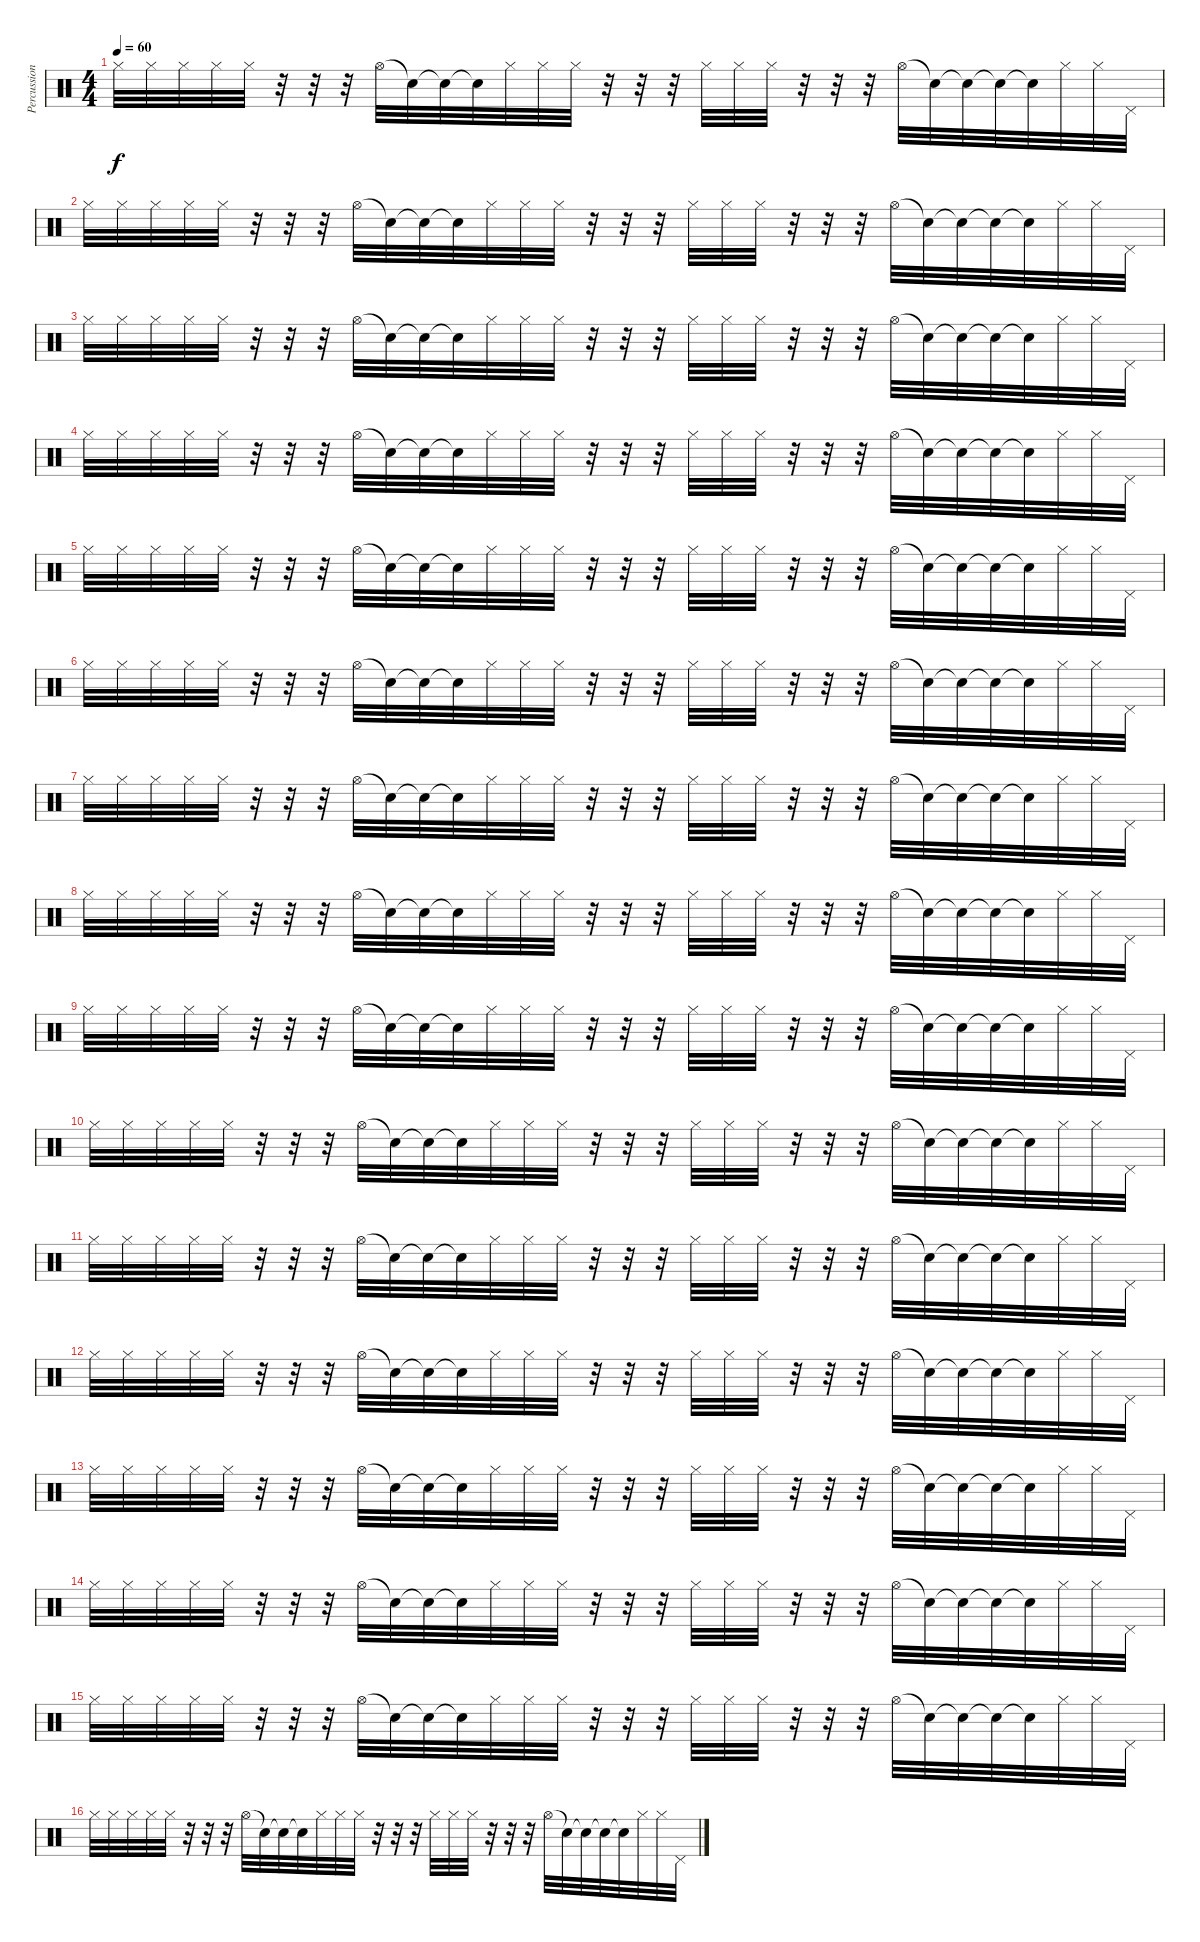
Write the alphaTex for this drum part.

\track ("Percussions (Hit Hat)" "Percussion") {instrument percussion}
\staff {score}
\articulation defaults
\ts (4 4)
\tempo 60
\clef neutral
\ks c "Hi-Hat (closed)".32{dy f} "Hi-Hat (closed)".32 "Hi-Hat (closed)".32 "Hi-Hat (closed)".32 "Hi-Hat (closed)".32
r.32 r.32 r.32 "Hi-Hat (open)".32 "Snare (hit)"{t}.32 "Snare (hit)"{t}.32 "Snare (hit)"{t}.32 "Hi-Hat (closed)".32 "Hi-Hat (closed)".32 "Hi-Hat (closed)".32 r.32 r.32 r.32 "Hi-Hat (closed)".32 "Hi-Hat (closed)".32 "Hi-Hat (closed)".32 r.32 r.32 r.32 "Hi-Hat (open)".32 "Snare (hit)"{t}.32 "Snare (hit)"{t}.32 "Snare (hit)"{t}.32 "Snare (hit)"{t}.32 "Hi-Hat (closed)".32 "Hi-Hat (closed)".32 "Pedal Hi-Hat (hit)".32 |
"Hi-Hat (closed)".32 "Hi-Hat (closed)".32 "Hi-Hat (closed)".32 "Hi-Hat (closed)".32 "Hi-Hat (closed)".32 r.32 r.32 r.32 "Hi-Hat (open)".32 "Snare (hit)"{t}.32 "Snare (hit)"{t}.32 "Snare (hit)"{t}.32 "Hi-Hat (closed)".32 "Hi-Hat (closed)".32 "Hi-Hat (closed)".32 r.32 r.32 r.32 "Hi-Hat (closed)".32 "Hi-Hat (closed)".32 "Hi-Hat (closed)".32 r.32 r.32 r.32 "Hi-Hat (open)".32 "Snare (hit)"{t}.32 "Snare (hit)"{t}.32 "Snare (hit)"{t}.32 "Snare (hit)"{t}.32 "Hi-Hat (closed)".32 "Hi-Hat (closed)".32 "Pedal Hi-Hat (hit)".32 |
"Hi-Hat (closed)".32 "Hi-Hat (closed)".32 "Hi-Hat (closed)".32 "Hi-Hat (closed)".32 "Hi-Hat (closed)".32 r.32 r.32 r.32 "Hi-Hat (open)".32 "Snare (hit)"{t}.32 "Snare (hit)"{t}.32 "Snare (hit)"{t}.32 "Hi-Hat (closed)".32 "Hi-Hat (closed)".32 "Hi-Hat (closed)".32 r.32 r.32 r.32 "Hi-Hat (closed)".32 "Hi-Hat (closed)".32 "Hi-Hat (closed)".32 r.32 r.32 r.32 "Hi-Hat (open)".32 "Snare (hit)"{t}.32 "Snare (hit)"{t}.32 "Snare (hit)"{t}.32 "Snare (hit)"{t}.32 "Hi-Hat (closed)".32 "Hi-Hat (closed)".32 "Pedal Hi-Hat (hit)".32 |
"Hi-Hat (closed)".32 "Hi-Hat (closed)".32 "Hi-Hat (closed)".32 "Hi-Hat (closed)".32 "Hi-Hat (closed)".32 r.32 r.32 r.32 "Hi-Hat (open)".32 "Snare (hit)"{t}.32 "Snare (hit)"{t}.32 "Snare (hit)"{t}.32 "Hi-Hat (closed)".32 "Hi-Hat (closed)".32 "Hi-Hat (closed)".32 r.32 r.32 r.32 "Hi-Hat (closed)".32 "Hi-Hat (closed)".32 "Hi-Hat (closed)".32 r.32 r.32 r.32 "Hi-Hat (open)".32 "Snare (hit)"{t}.32 "Snare (hit)"{t}.32 "Snare (hit)"{t}.32 "Snare (hit)"{t}.32 "Hi-Hat (closed)".32 "Hi-Hat (closed)".32 "Pedal Hi-Hat (hit)".32 |
"Hi-Hat (closed)".32 "Hi-Hat (closed)".32 "Hi-Hat (closed)".32 "Hi-Hat (closed)".32 "Hi-Hat (closed)".32 r.32 r.32 r.32 "Hi-Hat (open)".32 "Snare (hit)"{t}.32 "Snare (hit)"{t}.32 "Snare (hit)"{t}.32 "Hi-Hat (closed)".32 "Hi-Hat (closed)".32 "Hi-Hat (closed)".32 r.32 r.32 r.32 "Hi-Hat (closed)".32 "Hi-Hat (closed)".32 "Hi-Hat (closed)".32 r.32 r.32 r.32 "Hi-Hat (open)".32 "Snare (hit)"{t}.32 "Snare (hit)"{t}.32 "Snare (hit)"{t}.32 "Snare (hit)"{t}.32 "Hi-Hat (closed)".32 "Hi-Hat (closed)".32 "Pedal Hi-Hat (hit)".32 |
"Hi-Hat (closed)".32 "Hi-Hat (closed)".32 "Hi-Hat (closed)".32 "Hi-Hat (closed)".32 "Hi-Hat (closed)".32 r.32 r.32 r.32 "Hi-Hat (open)".32 "Snare (hit)"{t}.32 "Snare (hit)"{t}.32 "Snare (hit)"{t}.32 "Hi-Hat (closed)".32 "Hi-Hat (closed)".32 "Hi-Hat (closed)".32 r.32 r.32 r.32 "Hi-Hat (closed)".32 "Hi-Hat (closed)".32 "Hi-Hat (closed)".32 r.32 r.32 r.32 "Hi-Hat (open)".32 "Snare (hit)"{t}.32 "Snare (hit)"{t}.32 "Snare (hit)"{t}.32 "Snare (hit)"{t}.32 "Hi-Hat (closed)".32 "Hi-Hat (closed)".32 "Pedal Hi-Hat (hit)".32 |
"Hi-Hat (closed)".32 "Hi-Hat (closed)".32 "Hi-Hat (closed)".32 "Hi-Hat (closed)".32 "Hi-Hat (closed)".32 r.32 r.32 r.32 "Hi-Hat (open)".32 "Snare (hit)"{t}.32 "Snare (hit)"{t}.32 "Snare (hit)"{t}.32 "Hi-Hat (closed)".32 "Hi-Hat (closed)".32 "Hi-Hat (closed)".32 r.32 r.32 r.32 "Hi-Hat (closed)".32 "Hi-Hat (closed)".32 "Hi-Hat (closed)".32 r.32 r.32 r.32 "Hi-Hat (open)".32 "Snare (hit)"{t}.32 "Snare (hit)"{t}.32 "Snare (hit)"{t}.32 "Snare (hit)"{t}.32 "Hi-Hat (closed)".32 "Hi-Hat (closed)".32 "Pedal Hi-Hat (hit)".32 |
"Hi-Hat (closed)".32 "Hi-Hat (closed)".32 "Hi-Hat (closed)".32 "Hi-Hat (closed)".32 "Hi-Hat (closed)".32 r.32 r.32 r.32 "Hi-Hat (open)".32 "Snare (hit)"{t}.32 "Snare (hit)"{t}.32 "Snare (hit)"{t}.32 "Hi-Hat (closed)".32 "Hi-Hat (closed)".32 "Hi-Hat (closed)".32 r.32 r.32 r.32 "Hi-Hat (closed)".32 "Hi-Hat (closed)".32 "Hi-Hat (closed)".32 r.32 r.32 r.32 "Hi-Hat (open)".32 "Snare (hit)"{t}.32 "Snare (hit)"{t}.32 "Snare (hit)"{t}.32 "Snare (hit)"{t}.32 "Hi-Hat (closed)".32 "Hi-Hat (closed)".32 "Pedal Hi-Hat (hit)".32 |
"Hi-Hat (closed)".32 "Hi-Hat (closed)".32 "Hi-Hat (closed)".32 "Hi-Hat (closed)".32 "Hi-Hat (closed)".32 r.32 r.32 r.32 "Hi-Hat (open)".32 "Snare (hit)"{t}.32 "Snare (hit)"{t}.32 "Snare (hit)"{t}.32 "Hi-Hat (closed)".32 "Hi-Hat (closed)".32 "Hi-Hat (closed)".32 r.32 r.32 r.32 "Hi-Hat (closed)".32 "Hi-Hat (closed)".32 "Hi-Hat (closed)".32 r.32 r.32 r.32 "Hi-Hat (open)".32 "Snare (hit)"{t}.32 "Snare (hit)"{t}.32 "Snare (hit)"{t}.32 "Snare (hit)"{t}.32 "Hi-Hat (closed)".32 "Hi-Hat (closed)".32 "Pedal Hi-Hat (hit)".32 |
"Hi-Hat (closed)".32 "Hi-Hat (closed)".32 "Hi-Hat (closed)".32 "Hi-Hat (closed)".32 "Hi-Hat (closed)".32 r.32 r.32 r.32 "Hi-Hat (open)".32 "Snare (hit)"{t}.32 "Snare (hit)"{t}.32 "Snare (hit)"{t}.32 "Hi-Hat (closed)".32 "Hi-Hat (closed)".32 "Hi-Hat (closed)".32 r.32 r.32 r.32 "Hi-Hat (closed)".32 "Hi-Hat (closed)".32 "Hi-Hat (closed)".32 r.32 r.32 r.32 "Hi-Hat (open)".32 "Snare (hit)"{t}.32 "Snare (hit)"{t}.32 "Snare (hit)"{t}.32 "Snare (hit)"{t}.32 "Hi-Hat (closed)".32 "Hi-Hat (closed)".32 "Pedal Hi-Hat (hit)".32 |
"Hi-Hat (closed)".32 "Hi-Hat (closed)".32 "Hi-Hat (closed)".32 "Hi-Hat (closed)".32 "Hi-Hat (closed)".32 r.32 r.32 r.32 "Hi-Hat (open)".32 "Snare (hit)"{t}.32 "Snare (hit)"{t}.32 "Snare (hit)"{t}.32 "Hi-Hat (closed)".32 "Hi-Hat (closed)".32 "Hi-Hat (closed)".32 r.32 r.32 r.32 "Hi-Hat (closed)".32 "Hi-Hat (closed)".32 "Hi-Hat (closed)".32 r.32 r.32 r.32 "Hi-Hat (open)".32 "Snare (hit)"{t}.32 "Snare (hit)"{t}.32 "Snare (hit)"{t}.32 "Snare (hit)"{t}.32 "Hi-Hat (closed)".32 "Hi-Hat (closed)".32 "Pedal Hi-Hat (hit)".32 |
"Hi-Hat (closed)".32 "Hi-Hat (closed)".32 "Hi-Hat (closed)".32 "Hi-Hat (closed)".32 "Hi-Hat (closed)".32 r.32 r.32 r.32 "Hi-Hat (open)".32 "Snare (hit)"{t}.32 "Snare (hit)"{t}.32 "Snare (hit)"{t}.32 "Hi-Hat (closed)".32 "Hi-Hat (closed)".32 "Hi-Hat (closed)".32 r.32 r.32 r.32 "Hi-Hat (closed)".32 "Hi-Hat (closed)".32 "Hi-Hat (closed)".32 r.32 r.32 r.32 "Hi-Hat (open)".32 "Snare (hit)"{t}.32 "Snare (hit)"{t}.32 "Snare (hit)"{t}.32 "Snare (hit)"{t}.32 "Hi-Hat (closed)".32 "Hi-Hat (closed)".32 "Pedal Hi-Hat (hit)".32 |
"Hi-Hat (closed)".32 "Hi-Hat (closed)".32 "Hi-Hat (closed)".32 "Hi-Hat (closed)".32 "Hi-Hat (closed)".32 r.32 r.32 r.32 "Hi-Hat (open)".32 "Snare (hit)"{t}.32 "Snare (hit)"{t}.32 "Snare (hit)"{t}.32 "Hi-Hat (closed)".32 "Hi-Hat (closed)".32 "Hi-Hat (closed)".32 r.32 r.32 r.32 "Hi-Hat (closed)".32 "Hi-Hat (closed)".32 "Hi-Hat (closed)".32 r.32 r.32 r.32 "Hi-Hat (open)".32 "Snare (hit)"{t}.32 "Snare (hit)"{t}.32 "Snare (hit)"{t}.32 "Snare (hit)"{t}.32 "Hi-Hat (closed)".32 "Hi-Hat (closed)".32 "Pedal Hi-Hat (hit)".32 |
"Hi-Hat (closed)".32 "Hi-Hat (closed)".32 "Hi-Hat (closed)".32 "Hi-Hat (closed)".32 "Hi-Hat (closed)".32 r.32 r.32 r.32 "Hi-Hat (open)".32 "Snare (hit)"{t}.32 "Snare (hit)"{t}.32 "Snare (hit)"{t}.32 "Hi-Hat (closed)".32 "Hi-Hat (closed)".32 "Hi-Hat (closed)".32 r.32 r.32 r.32 "Hi-Hat (closed)".32 "Hi-Hat (closed)".32 "Hi-Hat (closed)".32 r.32 r.32 r.32 "Hi-Hat (open)".32 "Snare (hit)"{t}.32 "Snare (hit)"{t}.32 "Snare (hit)"{t}.32 "Snare (hit)"{t}.32 "Hi-Hat (closed)".32 "Hi-Hat (closed)".32 "Pedal Hi-Hat (hit)".32 |
"Hi-Hat (closed)".32 "Hi-Hat (closed)".32 "Hi-Hat (closed)".32 "Hi-Hat (closed)".32 "Hi-Hat (closed)".32 r.32 r.32 r.32 "Hi-Hat (open)".32 "Snare (hit)"{t}.32 "Snare (hit)"{t}.32 "Snare (hit)"{t}.32 "Hi-Hat (closed)".32 "Hi-Hat (closed)".32 "Hi-Hat (closed)".32 r.32 r.32 r.32 "Hi-Hat (closed)".32 "Hi-Hat (closed)".32 "Hi-Hat (closed)".32 r.32 r.32 r.32 "Hi-Hat (open)".32 "Snare (hit)"{t}.32 "Snare (hit)"{t}.32 "Snare (hit)"{t}.32 "Snare (hit)"{t}.32 "Hi-Hat (closed)".32 "Hi-Hat (closed)".32 "Pedal Hi-Hat (hit)".32 |
"Hi-Hat (closed)".32 "Hi-Hat (closed)".32 "Hi-Hat (closed)".32 "Hi-Hat (closed)".32 "Hi-Hat (closed)".32 r.32 r.32 r.32 "Hi-Hat (open)".32 "Snare (hit)"{t}.32 "Snare (hit)"{t}.32 "Snare (hit)"{t}.32 "Hi-Hat (closed)".32 "Hi-Hat (closed)".32 "Hi-Hat (closed)".32 r.32 r.32 r.32 "Hi-Hat (closed)".32 "Hi-Hat (closed)".32 "Hi-Hat (closed)".32 r.32 r.32 r.32 "Hi-Hat (open)".32 "Snare (hit)"{t}.32 "Snare (hit)"{t}.32 "Snare (hit)"{t}.32 "Snare (hit)"{t}.32 "Hi-Hat (closed)".32 "Hi-Hat (closed)".32 "Pedal Hi-Hat (hit)".32
